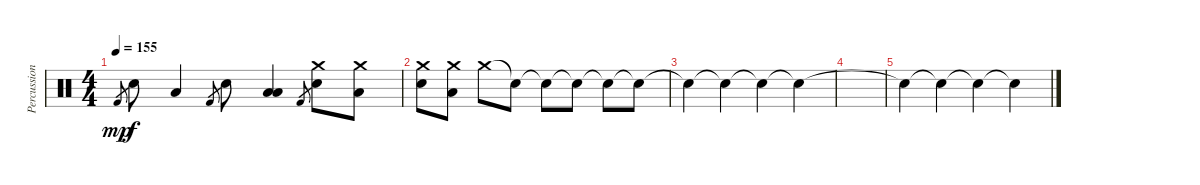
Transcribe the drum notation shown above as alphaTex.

\track ("Percussioni" "Percussion") {instrument percussion}
\staff {score}
\articulation defaults
\ts (4 4)
\tempo 155
\clef neutral
\ks c "Kick (hit) 2".8{gr dy mp} "Snare (hit) 2".8{dy f} "Low Tom (hit)".4 "Kick (hit) 2".8{gr} "Snare (hit) 2".8
("Low Floor Tom (hit)" "Low Tom (hit)").4 "Kick (hit) 2".8{gr} ("Snare (hit) 2" "Crash medium (hit)").8 ("Crash medium (hit)" "Low Tom (hit)").8 |
("Snare (hit) 2" "Crash medium (hit)").8 ("Low Tom (hit)" "Crash medium (hit)").8 "Crash medium (hit)".8 "Snare (hit)"{t}.8 "Snare (hit)"{t}.8 "Snare (hit)"{t}.8 "Snare (hit)"{t}.8 "Snare (hit)"{t}.8 |
"Snare (hit)"{t}.4 "Snare (hit)"{t}.4 "Snare (hit)"{t}.4 "Snare (hit)"{t}.4 |
|
"Snare (hit)"{t}.4 "Snare (hit)"{t}.4 "Snare (hit)"{t}.4 "Snare (hit)"{t}.4
